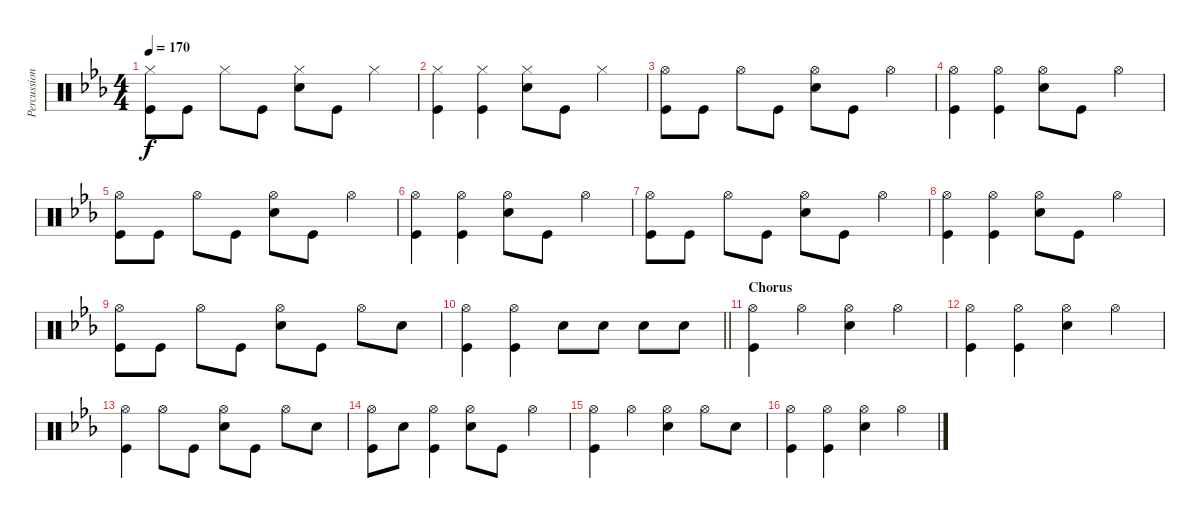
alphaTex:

\track ("Percussion" "Percussion") {instrument percussion}
\staff {score}
\articulation defaults
\ts (4 4)
\tempo 170
\clef neutral
\ks eb
("Kick (hit)" "Hi-Hat (closed)").8{dy f} "Kick (hit)".8 "Hi-Hat (closed)".8 "Kick (hit)".8 ("Snare (hit) 2" "Hi-Hat (closed)").8 "Kick (hit)".8 "Hi-Hat (closed)".4 |
("Kick (hit)" "Hi-Hat (closed)").4 ("Kick (hit)" "Hi-Hat (closed)").4 ("Snare (hit) 2" "Hi-Hat (closed)").8 "Kick (hit)".8 "Hi-Hat (closed)".4 |
("Kick (hit)" "Hi-Hat (open)").8 "Kick (hit)".8 "Hi-Hat (open)".8 "Kick (hit)".8 ("Snare (hit) 2" "Hi-Hat (open)").8 "Kick (hit)".8 "Hi-Hat (open)".4 |
("Kick (hit)" "Hi-Hat (open)").4 ("Kick (hit)" "Hi-Hat (open)").4 ("Snare (hit) 2" "Hi-Hat (open)").8 "Kick (hit)".8 "Hi-Hat (open)".4 |
("Kick (hit)" "Hi-Hat (open)").8 "Kick (hit)".8 "Hi-Hat (open)".8 "Kick (hit)".8 ("Snare (hit) 2" "Hi-Hat (open)").8 "Kick (hit)".8 "Hi-Hat (open)".4 |
("Kick (hit)" "Hi-Hat (open)").4 ("Kick (hit)" "Hi-Hat (open)").4 ("Snare (hit) 2" "Hi-Hat (open)").8 "Kick (hit)".8 "Hi-Hat (open)".4 |
("Kick (hit)" "Hi-Hat (open)").8 "Kick (hit)".8 "Hi-Hat (open)".8 "Kick (hit)".8 ("Snare (hit) 2" "Hi-Hat (open)").8 "Kick (hit)".8 "Hi-Hat (open)".4 |
("Kick (hit)" "Hi-Hat (open)").4 ("Kick (hit)" "Hi-Hat (open)").4 ("Snare (hit) 2" "Hi-Hat (open)").8 "Kick (hit)".8 "Hi-Hat (open)".4 |
("Kick (hit)" "Hi-Hat (open)").8 "Kick (hit)".8 "Hi-Hat (open)".8 "Kick (hit)".8 ("Snare (hit) 2" "Hi-Hat (open)").8 "Kick (hit)".8 "Hi-Hat (open)".8 "Snare (hit) 2".8 |
\barLineRight lightlight
("Hi-Hat (open)" "Kick (hit)").4 ("Hi-Hat (open)" "Kick (hit)").4 "Snare (hit) 2".8 "Snare (hit) 2".8 "Snare (hit) 2".8 "Snare (hit) 2".8 |
\section ("" "Chorus")
("Kick (hit)" "Hi-Hat (open)").4 "Hi-Hat (open)".4 ("Hi-Hat (open)" "Snare (hit) 2").4 "Hi-Hat (open)".4 |
("Hi-Hat (open)" "Kick (hit)").4 ("Kick (hit)" "Hi-Hat (open)").4 ("Hi-Hat (open)" "Snare (hit) 2").4 "Hi-Hat (open)".4 |
("Hi-Hat (open)" "Kick (hit)").4 "Hi-Hat (open)".8 "Kick (hit)".8 ("Hi-Hat (open)" "Snare (hit) 2").8 "Kick (hit)".8 "Hi-Hat (open)".8 "Snare (hit) 2".8 |
("Hi-Hat (open)" "Kick (hit)").8 "Snare (hit) 2".8 ("Kick (hit)" "Hi-Hat (open)").4 ("Hi-Hat (open)" "Snare (hit) 2").8 "Kick (hit)".8 "Hi-Hat (open)".4 |
("Kick (hit)" "Hi-Hat (open)").4 "Hi-Hat (open)".4 ("Hi-Hat (open)" "Snare (hit) 2").4 "Hi-Hat (open)".8 "Snare (hit) 2".8 |
("Hi-Hat (open)" "Kick (hit)").4 ("Kick (hit)" "Hi-Hat (open)").4 ("Hi-Hat (open)" "Snare (hit) 2").4 "Hi-Hat (open)".4
